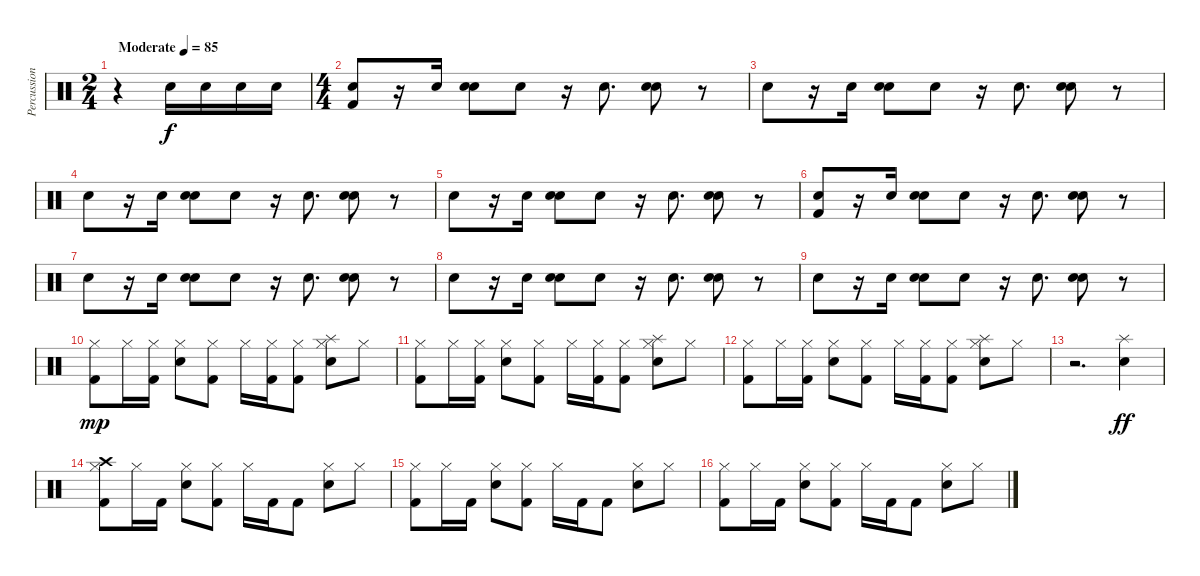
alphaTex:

\track ("Percussion" "Percussion") {instrument percussion}
\staff {score}
\articulation defaults
\ts (2 4)
\tempo (85 "Moderate")
\clef neutral
\ks c
r.4{dy f} "Electric Snare (hit)".16 "Electric Snare (hit)".16 "Electric Snare (hit)".16 "Electric Snare (hit)".16 |
\ts (4 4)
("Electric Snare (hit)" "Kick (hit) 2").8 r.16 "Electric Snare (hit)".16 ("Hand Clap (hit)" "Electric Snare (hit)").8 "Electric Snare (hit)".8 r.16 "Electric Snare (hit)".8{d} ("Hand Clap (hit)" "Electric Snare (hit)").8 r.8 |
"Electric Snare (hit)".8 r.16 "Electric Snare (hit)".16 ("Hand Clap (hit)" "Electric Snare (hit)").8 "Electric Snare (hit)".8 r.16 "Electric Snare (hit)".8{d} ("Hand Clap (hit)" "Electric Snare (hit)").8 r.8 |
"Electric Snare (hit)".8 r.16 "Electric Snare (hit)".16 ("Hand Clap (hit)" "Electric Snare (hit)").8 "Electric Snare (hit)".8 r.16 "Electric Snare (hit)".8{d} ("Hand Clap (hit)" "Electric Snare (hit)").8 r.8 |
"Electric Snare (hit)".8 r.16 "Electric Snare (hit)".16 ("Hand Clap (hit)" "Electric Snare (hit)").8 "Electric Snare (hit)".8 r.16 "Electric Snare (hit)".8{d} ("Hand Clap (hit)" "Electric Snare (hit)").8 r.8 |
("Electric Snare (hit)" "Kick (hit) 2").8 r.16 "Electric Snare (hit)".16 ("Hand Clap (hit)" "Electric Snare (hit)").8 "Electric Snare (hit)".8 r.16 "Electric Snare (hit)".8{d} ("Hand Clap (hit)" "Electric Snare (hit)").8 r.8 |
"Electric Snare (hit)".8 r.16 "Electric Snare (hit)".16 ("Hand Clap (hit)" "Electric Snare (hit)").8 "Electric Snare (hit)".8 r.16 "Electric Snare (hit)".8{d} ("Hand Clap (hit)" "Electric Snare (hit)").8 r.8 |
"Electric Snare (hit)".8 r.16 "Electric Snare (hit)".16 ("Hand Clap (hit)" "Electric Snare (hit)").8 "Electric Snare (hit)".8 r.16 "Electric Snare (hit)".8{d} ("Hand Clap (hit)" "Electric Snare (hit)").8 r.8 |
"Electric Snare (hit)".8 r.16 "Electric Snare (hit)".16 ("Hand Clap (hit)" "Electric Snare (hit)").8 "Electric Snare (hit)".8 r.16 "Electric Snare (hit)".8{d} ("Hand Clap (hit)" "Electric Snare (hit)").8 r.8 |
("Hi-Hat (closed)" "Kick (hit) 2").8{dy mp} "Hi-Hat (closed)".16 ("Hi-Hat (closed)" "Kick (hit) 2").16 ("Hand Clap (hit)" "Hi-Hat (closed)").8 ("Hi-Hat (closed)" "Kick (hit) 2").8 "Hi-Hat (closed)".16 ("Hi-Hat (closed)" "Kick (hit) 2").16 ("Hi-Hat (closed)" "Kick (hit) 2").8 ("Splash (hit)" "Hi-Hat (closed)" "Snare (hit) 2").8 "Hi-Hat (closed)".8 |
("Hi-Hat (closed)" "Kick (hit) 2").8 "Hi-Hat (closed)".16 ("Hi-Hat (closed)" "Kick (hit) 2").16 ("Hand Clap (hit)" "Hi-Hat (closed)").8 ("Hi-Hat (closed)" "Kick (hit) 2").8 "Hi-Hat (closed)".16 ("Hi-Hat (closed)" "Kick (hit) 2").16 ("Hi-Hat (closed)" "Kick (hit) 2").8 ("Splash (hit)" "Hi-Hat (closed)" "Snare (hit) 2").8 "Hi-Hat (closed)".8 |
("Hi-Hat (closed)" "Kick (hit) 2").8 "Hi-Hat (closed)".16 ("Hi-Hat (closed)" "Kick (hit) 2").16 ("Hand Clap (hit)" "Hi-Hat (closed)").8 ("Hi-Hat (closed)" "Kick (hit) 2").8 "Hi-Hat (closed)".16 ("Hi-Hat (closed)" "Kick (hit) 2").16 ("Hi-Hat (closed)" "Kick (hit) 2").8 ("Splash (hit)" "Hi-Hat (closed)" "Snare (hit) 2").8 "Hi-Hat (closed)".8 |
r.2{d} ("Splash (hit)" "Snare (hit) 2").4{dy ff} |
("Crash high (hit)" "Hi-Hat (closed)" "Kick (hit) 2").8 "Hi-Hat (closed)".16 "Kick (hit) 2".16 ("Hi-Hat (closed)" "Electric Snare (hit)").8 ("Hi-Hat (closed)" "Kick (hit) 2").8 "Hi-Hat (closed)".16 "Kick (hit) 2".16 "Kick (hit) 2".8 ("Hi-Hat (closed)" "Electric Snare (hit)").8 "Hi-Hat (closed)".8 |
("Hi-Hat (closed)" "Kick (hit) 2").8 "Hi-Hat (closed)".16 "Kick (hit) 2".16 ("Hi-Hat (closed)" "Electric Snare (hit)").8 ("Hi-Hat (closed)" "Kick (hit) 2").8 "Hi-Hat (closed)".16 "Kick (hit) 2".16 "Kick (hit) 2".8 ("Hi-Hat (closed)" "Electric Snare (hit)").8 "Hi-Hat (closed)".8 |
("Hi-Hat (closed)" "Kick (hit) 2").8 "Hi-Hat (closed)".16 "Kick (hit) 2".16 ("Hi-Hat (closed)" "Electric Snare (hit)").8 ("Hi-Hat (closed)" "Kick (hit) 2").8 "Hi-Hat (closed)".16 "Kick (hit) 2".16 "Kick (hit) 2".8 ("Hi-Hat (closed)" "Electric Snare (hit)").8 "Hi-Hat (closed)".8
